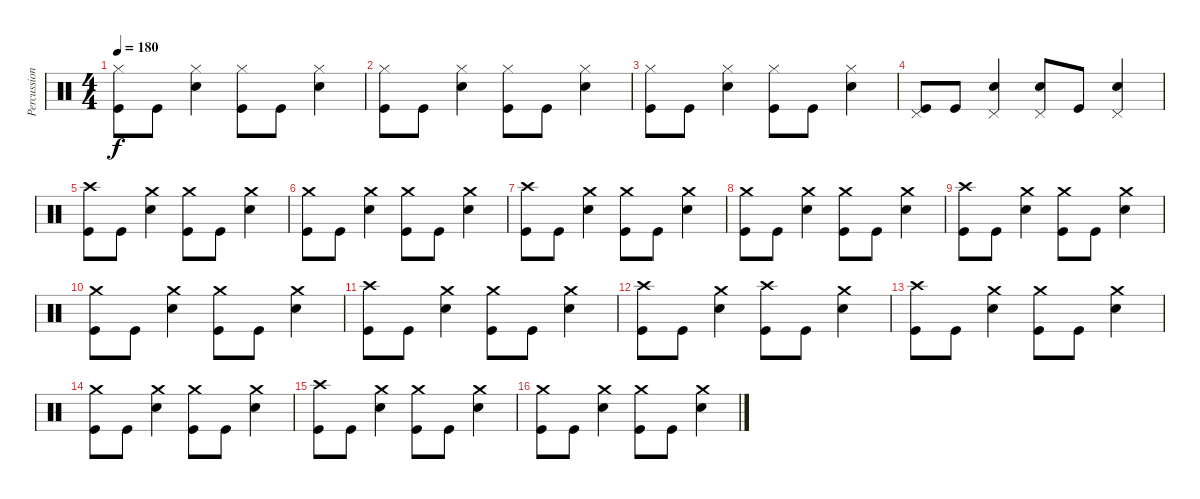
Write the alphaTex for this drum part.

\track ("Percussion" "Percussion") {instrument percussion}
\staff {score}
\articulation defaults
\ts (4 4)
\tempo 180
\clef neutral
\ks c
("Hi-Hat (closed)" "Kick (hit)").8{dy f} "Kick (hit)".8 ("Hi-Hat (closed)" "Snare (hit) 2").4 ("Hi-Hat (closed)" "Kick (hit)").8 "Kick (hit)".8 ("Hi-Hat (closed)" "Snare (hit) 2").4 |
("Hi-Hat (closed)" "Kick (hit)").8 "Kick (hit)".8 ("Hi-Hat (closed)" "Snare (hit) 2").4 ("Hi-Hat (closed)" "Kick (hit)").8 "Kick (hit)".8 ("Hi-Hat (closed)" "Snare (hit) 2").4 |
("Hi-Hat (closed)" "Kick (hit)").8 "Kick (hit)".8 ("Hi-Hat (closed)" "Snare (hit) 2").4 ("Hi-Hat (closed)" "Kick (hit)").8 "Kick (hit)".8 ("Hi-Hat (closed)" "Snare (hit) 2").4 |
("Pedal Hi-Hat (hit)" "Kick (hit)").8 "Kick (hit)".8 ("Pedal Hi-Hat (hit)" "Snare (hit) 2").4 ("Pedal Hi-Hat (hit)" "Snare (hit) 2").8 "Kick (hit)".8 ("Pedal Hi-Hat (hit)" "Snare (hit) 2").4 |
("Crash high (hit)" "Kick (hit)").8 "Kick (hit)".8 ("Crash medium (hit)" "Snare (hit) 2").4 ("Crash medium (hit)" "Kick (hit)").8 "Kick (hit)".8 ("Crash medium (hit)" "Snare (hit) 2").4 |
("Crash medium (hit)" "Kick (hit)").8 "Kick (hit)".8 ("Crash medium (hit)" "Snare (hit) 2").4 ("Crash medium (hit)" "Kick (hit)").8 "Kick (hit)".8 ("Crash medium (hit)" "Snare (hit) 2").4 |
("Crash high (hit)" "Kick (hit)").8 "Kick (hit)".8 ("Crash medium (hit)" "Snare (hit) 2").4 ("Crash medium (hit)" "Kick (hit)").8 "Kick (hit)".8 ("Crash medium (hit)" "Snare (hit) 2").4 |
("Crash medium (hit)" "Kick (hit)").8 "Kick (hit)".8 ("Crash medium (hit)" "Snare (hit) 2").4 ("Crash medium (hit)" "Kick (hit)").8 "Kick (hit)".8 ("Crash medium (hit)" "Snare (hit) 2").4 |
("Crash high (hit)" "Kick (hit)").8 "Kick (hit)".8 ("Crash medium (hit)" "Snare (hit) 2").4 ("Crash medium (hit)" "Kick (hit)").8 "Kick (hit)".8 ("Crash medium (hit)" "Snare (hit) 2").4 |
("Crash medium (hit)" "Kick (hit)").8 "Kick (hit)".8 ("Crash medium (hit)" "Snare (hit) 2").4 ("Crash medium (hit)" "Kick (hit)").8 "Kick (hit)".8 ("Crash medium (hit)" "Snare (hit) 2").4 |
("Crash high (hit)" "Kick (hit)").8 "Kick (hit)".8 ("Crash medium (hit)" "Snare (hit) 2").4 ("Crash medium (hit)" "Kick (hit)").8 "Kick (hit)".8 ("Crash medium (hit)" "Snare (hit) 2").4 |
("Crash high (hit)" "Kick (hit)").8 "Kick (hit)".8 ("Crash medium (hit)" "Snare (hit) 2").4 ("Crash high (hit)" "Kick (hit)").8 "Kick (hit)".8 ("Crash medium (hit)" "Snare (hit) 2").4 |
("Crash high (hit)" "Kick (hit)").8 "Kick (hit)".8 ("Crash medium (hit)" "Snare (hit) 2").4 ("Crash medium (hit)" "Kick (hit)").8 "Kick (hit)".8 ("Crash medium (hit)" "Snare (hit) 2").4 |
("Crash medium (hit)" "Kick (hit)").8 "Kick (hit)".8 ("Crash medium (hit)" "Snare (hit) 2").4 ("Crash medium (hit)" "Kick (hit)").8 "Kick (hit)".8 ("Crash medium (hit)" "Snare (hit) 2").4 |
("Crash high (hit)" "Kick (hit)").8 "Kick (hit)".8 ("Crash medium (hit)" "Snare (hit) 2").4 ("Crash medium (hit)" "Kick (hit)").8 "Kick (hit)".8 ("Crash medium (hit)" "Snare (hit) 2").4 |
("Crash medium (hit)" "Kick (hit)").8 "Kick (hit)".8 ("Crash medium (hit)" "Snare (hit) 2").4 ("Crash medium (hit)" "Kick (hit)").8 "Kick (hit)".8 ("Crash medium (hit)" "Snare (hit) 2").4
